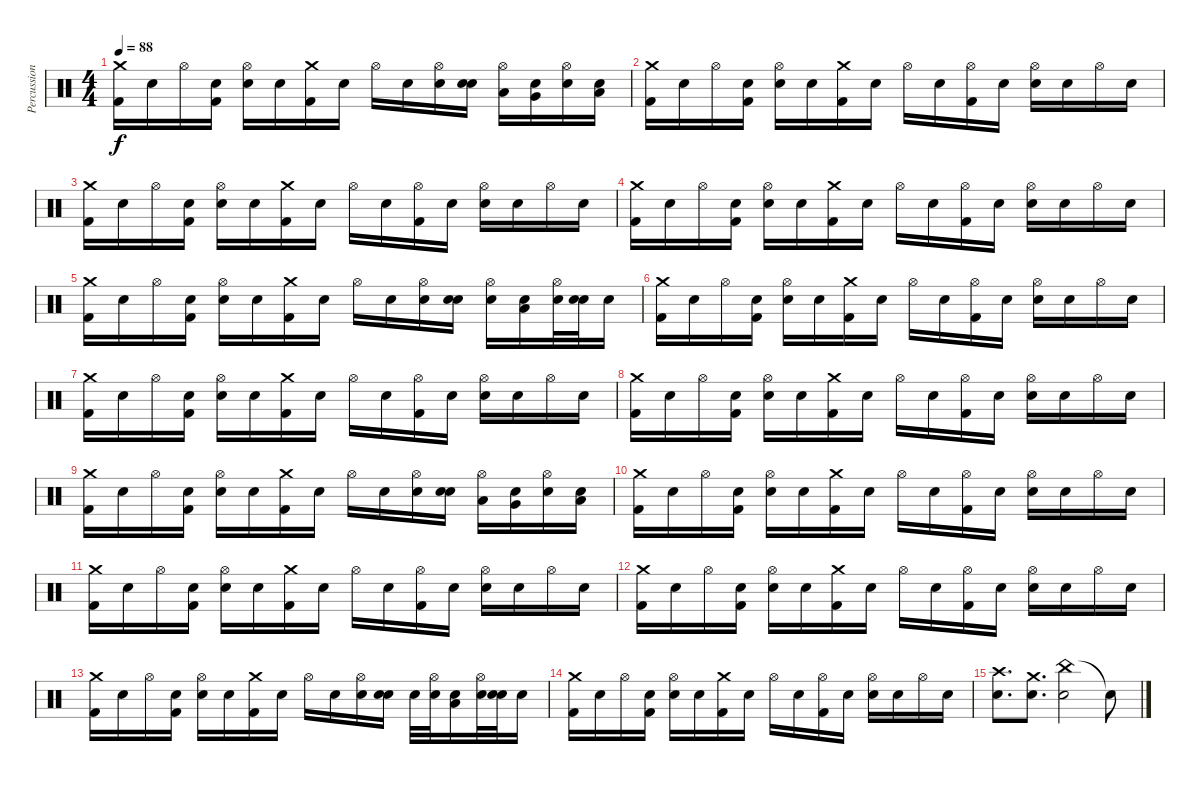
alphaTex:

\track ("Percussion" "Percussion") {instrument percussion}
\staff {score}
\articulation defaults
\ts (4 4)
\tempo 88
\clef neutral
\ks c
("Crash medium (hit)" "Kick (hit) 2").16{dy f} "Snare (hit)".16 "Hi-Hat (open)".16 ("Snare (hit)" "Kick (hit) 2").16 ("Hi-Hat (open)" "Electric Snare (hit)").16 "Snare (hit)".16 ("Crash medium (hit)" "Kick (hit) 2").16 "Snare (hit)".16 "Hi-Hat (open)".16 "Snare (hit)".16 ("Hi-Hat (open)" "Electric Snare (hit)").16 ("Snare (hit)" "Electric Snare (hit)").16 ("Hi-Hat (open)" "Low Tom (hit)").16 ("Snare (hit)" "Very Low Tom (hit)").16 ("Hi-Hat (open)" "Electric Snare (hit)").16 ("Snare (hit)" "Low Floor Tom (hit)").16 |
("Crash medium (hit)" "Kick (hit) 2").16 "Snare (hit)".16 "Hi-Hat (open)".16 ("Snare (hit)" "Kick (hit) 2").16 ("Hi-Hat (open)" "Electric Snare (hit)").16 "Snare (hit)".16 ("Crash medium (hit)" "Kick (hit) 2").16 "Snare (hit)".16 "Hi-Hat (open)".16 "Snare (hit)".16 ("Hi-Hat (open)" "Kick (hit) 2").16 "Snare (hit)".16 ("Hi-Hat (open)" "Electric Snare (hit)").16 "Snare (hit)".16 "Hi-Hat (open)".16 "Snare (hit)".16 |
("Crash medium (hit)" "Kick (hit) 2").16 "Snare (hit)".16 "Hi-Hat (open)".16 ("Snare (hit)" "Kick (hit) 2").16 ("Hi-Hat (open)" "Electric Snare (hit)").16 "Snare (hit)".16 ("Crash medium (hit)" "Kick (hit) 2").16 "Snare (hit)".16 "Hi-Hat (open)".16 "Snare (hit)".16 ("Hi-Hat (open)" "Kick (hit) 2").16 "Snare (hit)".16 ("Hi-Hat (open)" "Electric Snare (hit)").16 "Snare (hit)".16 "Hi-Hat (open)".16 "Snare (hit)".16 |
("Crash medium (hit)" "Kick (hit) 2").16 "Snare (hit)".16 "Hi-Hat (open)".16 ("Snare (hit)" "Kick (hit) 2").16 ("Hi-Hat (open)" "Electric Snare (hit)").16 "Snare (hit)".16 ("Crash medium (hit)" "Kick (hit) 2").16 "Snare (hit)".16 "Hi-Hat (open)".16 "Snare (hit)".16 ("Hi-Hat (open)" "Kick (hit) 2").16 "Snare (hit)".16 ("Hi-Hat (open)" "Electric Snare (hit)").16 "Snare (hit)".16 "Hi-Hat (open)".16 "Snare (hit)".16 |
("Crash medium (hit)" "Kick (hit) 2").16 "Snare (hit)".16 "Hi-Hat (open)".16 ("Snare (hit)" "Kick (hit) 2").16 ("Hi-Hat (open)" "Electric Snare (hit)").16 "Snare (hit)".16 ("Crash medium (hit)" "Kick (hit) 2").16 "Snare (hit)".16 "Hi-Hat (open)".16 "Snare (hit)".16 ("Hi-Hat (open)" "Electric Snare (hit)").16 ("Snare (hit)" "Electric Snare (hit)").16 ("Hi-Hat (open)" "Electric Snare (hit)").16 ("Snare (hit)" "Low Tom (hit)").16 ("Hi-Hat (open)" "Electric Snare (hit)").32 ("Snare (hit)" "Electric Snare (hit)").32 "Electric Snare (hit)".16 |
("Crash medium (hit)" "Kick (hit) 2").16 "Snare (hit)".16 "Hi-Hat (open)".16 ("Snare (hit)" "Kick (hit) 2").16 ("Hi-Hat (open)" "Electric Snare (hit)").16 "Snare (hit)".16 ("Crash medium (hit)" "Kick (hit) 2").16 "Snare (hit)".16 "Hi-Hat (open)".16 "Snare (hit)".16 ("Hi-Hat (open)" "Kick (hit) 2").16 "Snare (hit)".16 ("Hi-Hat (open)" "Electric Snare (hit)").16 "Snare (hit)".16 "Hi-Hat (open)".16 "Snare (hit)".16 |
("Crash medium (hit)" "Kick (hit) 2").16 "Snare (hit)".16 "Hi-Hat (open)".16 ("Snare (hit)" "Kick (hit) 2").16 ("Hi-Hat (open)" "Electric Snare (hit)").16 "Snare (hit)".16 ("Crash medium (hit)" "Kick (hit) 2").16 "Snare (hit)".16 "Hi-Hat (open)".16 "Snare (hit)".16 ("Hi-Hat (open)" "Kick (hit) 2").16 "Snare (hit)".16 ("Hi-Hat (open)" "Electric Snare (hit)").16 "Snare (hit)".16 "Hi-Hat (open)".16 "Snare (hit)".16 |
("Crash medium (hit)" "Kick (hit) 2").16 "Snare (hit)".16 "Hi-Hat (open)".16 ("Snare (hit)" "Kick (hit) 2").16 ("Hi-Hat (open)" "Electric Snare (hit)").16 "Snare (hit)".16 ("Crash medium (hit)" "Kick (hit) 2").16 "Snare (hit)".16 "Hi-Hat (open)".16 "Snare (hit)".16 ("Hi-Hat (open)" "Kick (hit) 2").16 "Snare (hit)".16 ("Hi-Hat (open)" "Electric Snare (hit)").16 "Snare (hit)".16 "Hi-Hat (open)".16 "Snare (hit)".16 |
("Crash medium (hit)" "Kick (hit) 2").16 "Snare (hit)".16 "Hi-Hat (open)".16 ("Snare (hit)" "Kick (hit) 2").16 ("Hi-Hat (open)" "Electric Snare (hit)").16 "Snare (hit)".16 ("Crash medium (hit)" "Kick (hit) 2").16 "Snare (hit)".16 "Hi-Hat (open)".16 "Snare (hit)".16 ("Hi-Hat (open)" "Electric Snare (hit)").16 ("Snare (hit)" "Electric Snare (hit)").16 ("Hi-Hat (open)" "Low Tom (hit)").16 ("Snare (hit)" "Very Low Tom (hit)").16 ("Hi-Hat (open)" "Electric Snare (hit)").16 ("Snare (hit)" "Low Floor Tom (hit)").16 |
("Crash medium (hit)" "Kick (hit) 2").16 "Snare (hit)".16 "Hi-Hat (open)".16 ("Snare (hit)" "Kick (hit) 2").16 ("Hi-Hat (open)" "Electric Snare (hit)").16 "Snare (hit)".16 ("Crash medium (hit)" "Kick (hit) 2").16 "Snare (hit)".16 "Hi-Hat (open)".16 "Snare (hit)".16 ("Hi-Hat (open)" "Kick (hit) 2").16 "Snare (hit)".16 ("Hi-Hat (open)" "Electric Snare (hit)").16 "Snare (hit)".16 "Hi-Hat (open)".16 "Snare (hit)".16 |
("Crash medium (hit)" "Kick (hit) 2").16 "Snare (hit)".16 "Hi-Hat (open)".16 ("Snare (hit)" "Kick (hit) 2").16 ("Hi-Hat (open)" "Electric Snare (hit)").16 "Snare (hit)".16 ("Crash medium (hit)" "Kick (hit) 2").16 "Snare (hit)".16 "Hi-Hat (open)".16 "Snare (hit)".16 ("Hi-Hat (open)" "Kick (hit) 2").16 "Snare (hit)".16 ("Hi-Hat (open)" "Electric Snare (hit)").16 "Snare (hit)".16 "Hi-Hat (open)".16 "Snare (hit)".16 |
("Crash medium (hit)" "Kick (hit) 2").16 "Snare (hit)".16 "Hi-Hat (open)".16 ("Snare (hit)" "Kick (hit) 2").16 ("Hi-Hat (open)" "Electric Snare (hit)").16 "Snare (hit)".16 ("Crash medium (hit)" "Kick (hit) 2").16 "Snare (hit)".16 "Hi-Hat (open)".16 "Snare (hit)".16 ("Hi-Hat (open)" "Kick (hit) 2").16 "Snare (hit)".16 ("Hi-Hat (open)" "Electric Snare (hit)").16 "Snare (hit)".16 "Hi-Hat (open)".16 "Snare (hit)".16 |
("Crash medium (hit)" "Kick (hit) 2").16 "Snare (hit)".16 "Hi-Hat (open)".16 ("Snare (hit)" "Kick (hit) 2").16 ("Hi-Hat (open)" "Electric Snare (hit)").16 "Snare (hit)".16 ("Crash medium (hit)" "Kick (hit) 2").16 "Snare (hit)".16 "Hi-Hat (open)".16 "Snare (hit)".16 ("Hi-Hat (open)" "Electric Snare (hit)").16 ("Snare (hit)" "Electric Snare (hit)").16 "Electric Snare (hit)".32 ("Hi-Hat (open)" "Electric Snare (hit)").32 ("Snare (hit)" "Low Tom (hit)").16 ("Hi-Hat (open)" "Electric Snare (hit)").32 ("Snare (hit)" "Electric Snare (hit)").32 "Electric Snare (hit)".16 |
("Crash medium (hit)" "Kick (hit) 2").16 "Snare (hit)".16 "Hi-Hat (open)".16 ("Snare (hit)" "Kick (hit) 2").16 ("Hi-Hat (open)" "Electric Snare (hit)").16 "Snare (hit)".16 ("Crash medium (hit)" "Kick (hit) 2").16 "Snare (hit)".16 "Hi-Hat (open)".16 "Snare (hit)".16 ("Hi-Hat (open)" "Kick (hit) 2").16 "Snare (hit)".16 ("Hi-Hat (open)" "Electric Snare (hit)").16 "Snare (hit)".16 "Hi-Hat (open)".16 "Snare (hit)".16 |
("Crash high (hit)" "Electric Snare (hit)").8{d} ("Crash medium (hit)" "Electric Snare (hit)").8{d} ("China (hit)" "Electric Snare (hit)").2 "Snare (hit)"{t}.8
